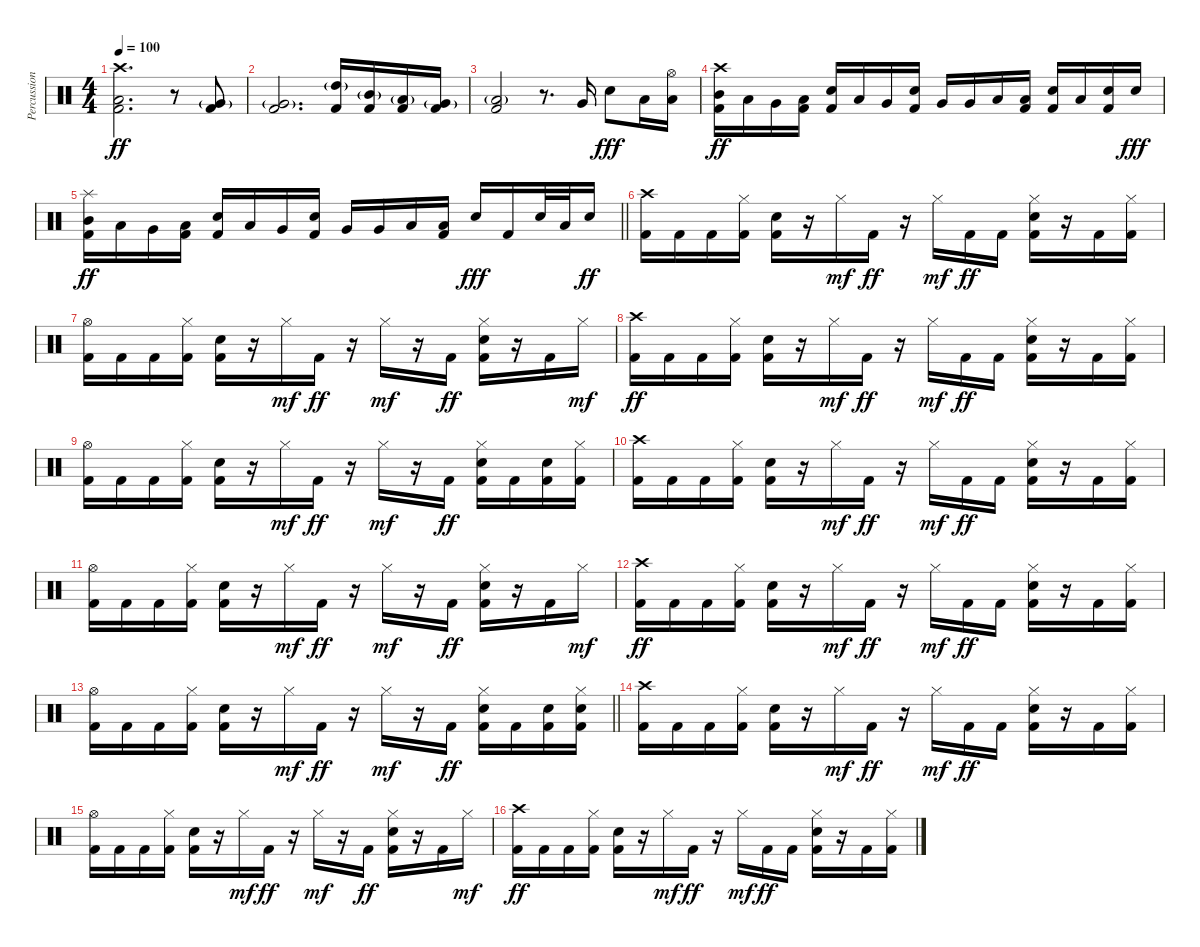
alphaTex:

\track ("Percussion" "Percussion") {instrument percussion}
\staff {score}
\articulation defaults
\ts (4 4)
\tempo 100
\clef neutral
\ks c
("Crash high (hit)" "Low Floor Tom (hit)" "Kick (hit) 2").2{d dy ff} r.8 ("Very Low Tom (hit)"{g} "Kick (hit) 2").8 |
("Very Low Tom (hit)"{g} "Kick (hit) 2").2{d} ("High Tom (hit)"{g} "Kick (hit) 2").16 ("Mid Tom (hit)"{g} "Kick (hit) 2").16 ("Low Tom (hit)"{g} "Kick (hit) 2").16 ("Very Low Tom (hit)"{g} "Kick (hit) 2").16 |
("Low Floor Tom (hit)"{g} "Kick (hit) 2").2 r.8{d} "Very Low Tom (hit)".16 "Snare (hit) 2".8{dy fff} "Low Floor Tom (hit)".16 ("Hi-Hat (open)" "Low Floor Tom (hit)").16 |
("Crash high (hit)" "Mid Tom (hit)" "Kick (hit) 2").16{dy ff} "Low Tom (hit)".16 "Very Low Tom (hit)".16 ("Low Floor Tom (hit)" "Kick (hit) 2").16 ("Snare (hit) 2" "Kick (hit) 2").16 "Low Floor Tom (hit)".16 "Very Low Tom (hit)".16 ("Snare (hit) 2" "Kick (hit) 2").16 "Very Low Tom (hit)".16 "Very Low Tom (hit)".16 "Low Floor Tom (hit)".16 ("Low Floor Tom (hit)" "Kick (hit) 2").16 ("Snare (hit) 2" "Kick (hit) 2").16 "Low Floor Tom (hit)".16 ("Snare (hit) 2" "Kick (hit) 2").16 "Snare (hit) 2".16{dy fff} |
\barLineRight lightlight
("Splash (hit)" "Mid Tom (hit)" "Kick (hit) 2").16{dy ff} "Low Tom (hit)".16 "Very Low Tom (hit)".16 ("Low Floor Tom (hit)" "Kick (hit) 2").16 ("Snare (hit) 2" "Kick (hit) 2").16 "Low Floor Tom (hit)".16 "Very Low Tom (hit)".16 ("Snare (hit) 2" "Kick (hit) 2").16 "Very Low Tom (hit)".16 "Very Low Tom (hit)".16 "Low Floor Tom (hit)".16 ("Low Floor Tom (hit)" "Kick (hit) 2").16 "Snare (hit) 2".16{dy fff} "Kick (hit) 2".16 "Snare (hit) 2".32 "Low Floor Tom (hit)".32 "Snare (hit) 2".16{dy ff} |
("Crash high (hit)" "Kick (hit) 2").16 "Kick (hit) 2".16 "Kick (hit) 2".16 ("Hi-Hat (closed)" "Kick (hit) 2").16 ("Snare (hit) 2" "Kick (hit) 2").16 r.16 "Hi-Hat (closed)".16{dy mf} "Kick (hit) 2".16{dy ff} r.16 "Hi-Hat (closed)".16{dy mf} "Kick (hit) 2".16{dy ff} "Kick (hit) 2".16 ("Hi-Hat (closed)" "Snare (hit) 2" "Kick (hit) 2").16 r.16 "Kick (hit) 2".16 ("Hi-Hat (closed)" "Kick (hit) 2").16 |
("Hi-Hat (open)" "Kick (hit) 2").16 "Kick (hit) 2".16 "Kick (hit) 2".16 ("Hi-Hat (closed)" "Kick (hit) 2").16 ("Snare (hit) 2" "Kick (hit) 2").16 r.16 "Hi-Hat (closed)".16{dy mf} "Kick (hit) 2".16{dy ff} r.16 "Hi-Hat (closed)".16{dy mf} r.16 "Kick (hit) 2".16{dy ff} ("Hi-Hat (closed)" "Snare (hit) 2" "Kick (hit) 2").16 r.16 "Kick (hit) 2".16 "Hi-Hat (closed)".16{dy mf} |
("Crash high (hit)" "Kick (hit) 2").16{dy ff} "Kick (hit) 2".16 "Kick (hit) 2".16 ("Hi-Hat (closed)" "Kick (hit) 2").16 ("Snare (hit) 2" "Kick (hit) 2").16 r.16 "Hi-Hat (closed)".16{dy mf} "Kick (hit) 2".16{dy ff} r.16 "Hi-Hat (closed)".16{dy mf} "Kick (hit) 2".16{dy ff} "Kick (hit) 2".16 ("Hi-Hat (closed)" "Snare (hit) 2" "Kick (hit) 2").16 r.16 "Kick (hit) 2".16 ("Hi-Hat (closed)" "Kick (hit) 2").16 |
("Hi-Hat (open)" "Kick (hit) 2").16 "Kick (hit) 2".16 "Kick (hit) 2".16 ("Hi-Hat (closed)" "Kick (hit) 2").16 ("Snare (hit) 2" "Kick (hit) 2").16 r.16 "Hi-Hat (closed)".16{dy mf} "Kick (hit) 2".16{dy ff} r.16 "Hi-Hat (closed)".16{dy mf} r.16 "Kick (hit) 2".16{dy ff} ("Hi-Hat (closed)" "Snare (hit) 2" "Kick (hit) 2").16 "Kick (hit) 2".16 ("Snare (hit) 2" "Kick (hit) 2").16 ("Hi-Hat (closed)" "Kick (hit) 2").16 |
("Crash high (hit)" "Kick (hit) 2").16 "Kick (hit) 2".16 "Kick (hit) 2".16 ("Hi-Hat (closed)" "Kick (hit) 2").16 ("Snare (hit) 2" "Kick (hit) 2").16 r.16 "Hi-Hat (closed)".16{dy mf} "Kick (hit) 2".16{dy ff} r.16 "Hi-Hat (closed)".16{dy mf} "Kick (hit) 2".16{dy ff} "Kick (hit) 2".16 ("Hi-Hat (closed)" "Snare (hit) 2" "Kick (hit) 2").16 r.16 "Kick (hit) 2".16 ("Hi-Hat (closed)" "Kick (hit) 2").16 |
("Hi-Hat (open)" "Kick (hit) 2").16 "Kick (hit) 2".16 "Kick (hit) 2".16 ("Hi-Hat (closed)" "Kick (hit) 2").16 ("Snare (hit) 2" "Kick (hit) 2").16 r.16 "Hi-Hat (closed)".16{dy mf} "Kick (hit) 2".16{dy ff} r.16 "Hi-Hat (closed)".16{dy mf} r.16 "Kick (hit) 2".16{dy ff} ("Hi-Hat (closed)" "Snare (hit) 2" "Kick (hit) 2").16 r.16 "Kick (hit) 2".16 "Hi-Hat (closed)".16{dy mf} |
("Crash high (hit)" "Kick (hit) 2").16{dy ff} "Kick (hit) 2".16 "Kick (hit) 2".16 ("Hi-Hat (closed)" "Kick (hit) 2").16 ("Snare (hit) 2" "Kick (hit) 2").16 r.16 "Hi-Hat (closed)".16{dy mf} "Kick (hit) 2".16{dy ff} r.16 "Hi-Hat (closed)".16{dy mf} "Kick (hit) 2".16{dy ff} "Kick (hit) 2".16 ("Hi-Hat (closed)" "Snare (hit) 2" "Kick (hit) 2").16 r.16 "Kick (hit) 2".16 ("Hi-Hat (closed)" "Kick (hit) 2").16 |
\barLineRight lightlight
("Hi-Hat (open)" "Kick (hit) 2").16 "Kick (hit) 2".16 "Kick (hit) 2".16 ("Hi-Hat (closed)" "Kick (hit) 2").16 ("Snare (hit) 2" "Kick (hit) 2").16 r.16 "Hi-Hat (closed)".16{dy mf} "Kick (hit) 2".16{dy ff} r.16 "Hi-Hat (closed)".16{dy mf} r.16 "Kick (hit) 2".16{dy ff} ("Hi-Hat (closed)" "Snare (hit) 2" "Kick (hit) 2").16 "Kick (hit) 2".16 ("Snare (hit) 2" "Kick (hit) 2").16 ("Hi-Hat (closed)" "Snare (hit) 2" "Kick (hit) 2").16 |
("Crash high (hit)" "Kick (hit) 2").16 "Kick (hit) 2".16 "Kick (hit) 2".16 ("Hi-Hat (closed)" "Kick (hit) 2").16 ("Snare (hit) 2" "Kick (hit) 2").16 r.16 "Hi-Hat (closed)".16{dy mf} "Kick (hit) 2".16{dy ff} r.16 "Hi-Hat (closed)".16{dy mf} "Kick (hit) 2".16{dy ff} "Kick (hit) 2".16 ("Hi-Hat (closed)" "Snare (hit) 2" "Kick (hit) 2").16 r.16 "Kick (hit) 2".16 ("Hi-Hat (closed)" "Kick (hit) 2").16 |
("Hi-Hat (open)" "Kick (hit) 2").16 "Kick (hit) 2".16 "Kick (hit) 2".16 ("Hi-Hat (closed)" "Kick (hit) 2").16 ("Snare (hit) 2" "Kick (hit) 2").16 r.16 "Hi-Hat (closed)".16{dy mf} "Kick (hit) 2".16{dy ff} r.16 "Hi-Hat (closed)".16{dy mf} r.16 "Kick (hit) 2".16{dy ff} ("Hi-Hat (closed)" "Snare (hit) 2" "Kick (hit) 2").16 r.16 "Kick (hit) 2".16 "Hi-Hat (closed)".16{dy mf} |
("Crash high (hit)" "Kick (hit) 2").16{dy ff} "Kick (hit) 2".16 "Kick (hit) 2".16 ("Hi-Hat (closed)" "Kick (hit) 2").16 ("Snare (hit) 2" "Kick (hit) 2").16 r.16 "Hi-Hat (closed)".16{dy mf} "Kick (hit) 2".16{dy ff} r.16 "Hi-Hat (closed)".16{dy mf} "Kick (hit) 2".16{dy ff} "Kick (hit) 2".16 ("Hi-Hat (closed)" "Snare (hit) 2" "Kick (hit) 2").16 r.16 "Kick (hit) 2".16 ("Hi-Hat (closed)" "Kick (hit) 2").16
